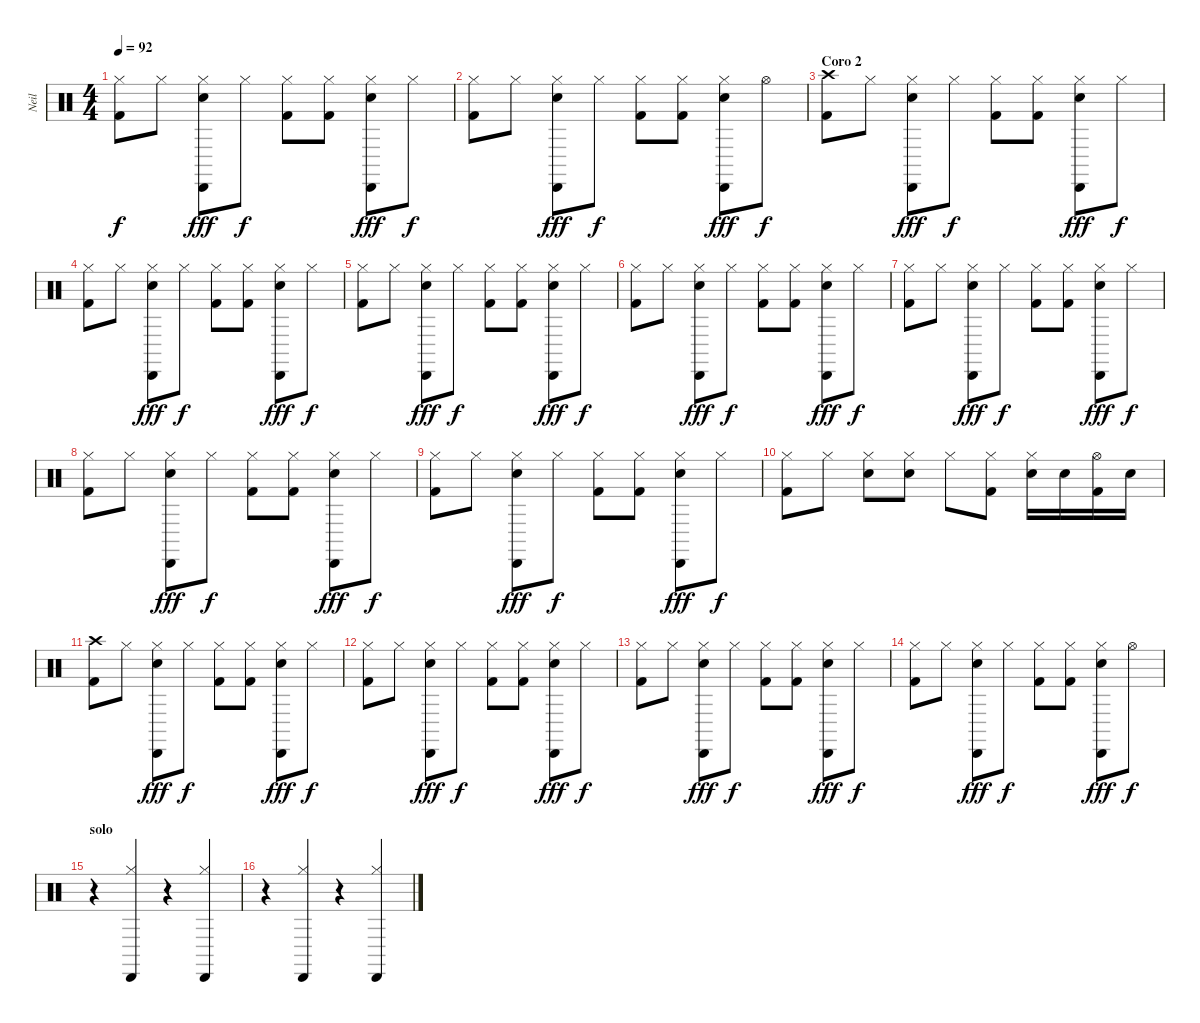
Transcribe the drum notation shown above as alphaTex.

\track ("Neil" "Neil") {instrument percussion}
\staff {score}
\articulation defaults
\ts (4 4)
\tempo 92
\clef neutral
\ks c
("Hi-Hat (closed)" "Kick (hit) 2").8{dy f} "Hi-Hat (closed)".8 ("Hi-Hat (closed)" "Cabasa (hit)" "Electric Snare (hit)").8{dy fff} "Hi-Hat (closed)".8{dy f} ("Hi-Hat (closed)" "Kick (hit) 2").8 ("Hi-Hat (closed)" "Kick (hit) 2").8 ("Hi-Hat (closed)" "Cabasa (hit)" "Electric Snare (hit)").8{dy fff} "Hi-Hat (closed)".8{dy f} |
("Hi-Hat (closed)" "Kick (hit) 2").8 "Hi-Hat (closed)".8 ("Hi-Hat (closed)" "Cabasa (hit)" "Electric Snare (hit)").8{dy fff} "Hi-Hat (closed)".8{dy f} ("Hi-Hat (closed)" "Kick (hit) 2").8 ("Hi-Hat (closed)" "Kick (hit) 2").8 ("Hi-Hat (closed)" "Cabasa (hit)" "Electric Snare (hit)").8{dy fff} "Hi-Hat (open)".8{dy f} |
\section ("" "Coro 2")
("Crash high (hit)" "Kick (hit) 2").8 "Hi-Hat (closed)".8 ("Hi-Hat (closed)" "Cabasa (hit)" "Electric Snare (hit)").8{dy fff} "Hi-Hat (closed)".8{dy f} ("Hi-Hat (closed)" "Kick (hit) 2").8 ("Hi-Hat (closed)" "Kick (hit) 2").8 ("Hi-Hat (closed)" "Cabasa (hit)" "Electric Snare (hit)").8{dy fff} "Hi-Hat (closed)".8{dy f} |
("Hi-Hat (closed)" "Kick (hit) 2").8 "Hi-Hat (closed)".8 ("Hi-Hat (closed)" "Cabasa (hit)" "Electric Snare (hit)").8{dy fff} "Hi-Hat (closed)".8{dy f} ("Hi-Hat (closed)" "Kick (hit) 2").8 ("Hi-Hat (closed)" "Kick (hit) 2").8 ("Hi-Hat (closed)" "Cabasa (hit)" "Electric Snare (hit)").8{dy fff} "Hi-Hat (closed)".8{dy f} |
("Hi-Hat (closed)" "Kick (hit) 2").8 "Hi-Hat (closed)".8 ("Hi-Hat (closed)" "Cabasa (hit)" "Electric Snare (hit)").8{dy fff} "Hi-Hat (closed)".8{dy f} ("Hi-Hat (closed)" "Kick (hit) 2").8 ("Hi-Hat (closed)" "Kick (hit) 2").8 ("Hi-Hat (closed)" "Cabasa (hit)" "Electric Snare (hit)").8{dy fff} "Hi-Hat (closed)".8{dy f} |
("Hi-Hat (closed)" "Kick (hit) 2").8 "Hi-Hat (closed)".8 ("Hi-Hat (closed)" "Cabasa (hit)" "Electric Snare (hit)").8{dy fff} "Hi-Hat (closed)".8{dy f} ("Hi-Hat (closed)" "Kick (hit) 2").8 ("Hi-Hat (closed)" "Kick (hit) 2").8 ("Hi-Hat (closed)" "Cabasa (hit)" "Electric Snare (hit)").8{dy fff} "Hi-Hat (closed)".8{dy f} |
("Hi-Hat (closed)" "Kick (hit) 2").8 "Hi-Hat (closed)".8 ("Hi-Hat (closed)" "Cabasa (hit)" "Electric Snare (hit)").8{dy fff} "Hi-Hat (closed)".8{dy f} ("Hi-Hat (closed)" "Kick (hit) 2").8 ("Hi-Hat (closed)" "Kick (hit) 2").8 ("Hi-Hat (closed)" "Cabasa (hit)" "Electric Snare (hit)").8{dy fff} "Hi-Hat (closed)".8{dy f} |
("Hi-Hat (closed)" "Kick (hit) 2").8 "Hi-Hat (closed)".8 ("Hi-Hat (closed)" "Cabasa (hit)" "Electric Snare (hit)").8{dy fff} "Hi-Hat (closed)".8{dy f} ("Hi-Hat (closed)" "Kick (hit) 2").8 ("Hi-Hat (closed)" "Kick (hit) 2").8 ("Hi-Hat (closed)" "Cabasa (hit)" "Electric Snare (hit)").8{dy fff} "Hi-Hat (closed)".8{dy f} |
("Hi-Hat (closed)" "Kick (hit) 2").8 "Hi-Hat (closed)".8 ("Hi-Hat (closed)" "Cabasa (hit)" "Electric Snare (hit)").8{dy fff} "Hi-Hat (closed)".8{dy f} ("Hi-Hat (closed)" "Kick (hit) 2").8 ("Hi-Hat (closed)" "Kick (hit) 2").8 ("Hi-Hat (closed)" "Cabasa (hit)" "Electric Snare (hit)").8{dy fff} "Hi-Hat (closed)".8{dy f} |
("Hi-Hat (closed)" "Kick (hit) 2").8 "Hi-Hat (closed)".8 ("Hi-Hat (closed)" "Electric Snare (hit)").8 ("Hi-Hat (closed)" "Electric Snare (hit)").8 "Hi-Hat (closed)".8 ("Hi-Hat (closed)" "Kick (hit) 2").8 ("Hi-Hat (closed)" "Electric Snare (hit)").16 "Electric Snare (hit)".16 ("Hi-Hat (open)" "Kick (hit) 2").16 "Electric Snare (hit)".16 |
("Crash high (hit)" "Kick (hit) 2").8 "Hi-Hat (closed)".8 ("Hi-Hat (closed)" "Cabasa (hit)" "Electric Snare (hit)").8{dy fff} "Hi-Hat (closed)".8{dy f} ("Hi-Hat (closed)" "Kick (hit) 2").8 ("Hi-Hat (closed)" "Kick (hit) 2").8 ("Hi-Hat (closed)" "Cabasa (hit)" "Electric Snare (hit)").8{dy fff} "Hi-Hat (closed)".8{dy f} |
("Hi-Hat (closed)" "Kick (hit) 2").8 "Hi-Hat (closed)".8 ("Hi-Hat (closed)" "Cabasa (hit)" "Electric Snare (hit)").8{dy fff} "Hi-Hat (closed)".8{dy f} ("Hi-Hat (closed)" "Kick (hit) 2").8 ("Hi-Hat (closed)" "Kick (hit) 2").8 ("Hi-Hat (closed)" "Cabasa (hit)" "Electric Snare (hit)").8{dy fff} "Hi-Hat (closed)".8{dy f} |
("Hi-Hat (closed)" "Kick (hit) 2").8 "Hi-Hat (closed)".8 ("Hi-Hat (closed)" "Cabasa (hit)" "Electric Snare (hit)").8{dy fff} "Hi-Hat (closed)".8{dy f} ("Hi-Hat (closed)" "Kick (hit) 2").8 ("Hi-Hat (closed)" "Kick (hit) 2").8 ("Hi-Hat (closed)" "Cabasa (hit)" "Electric Snare (hit)").8{dy fff} "Hi-Hat (closed)".8{dy f} |
("Hi-Hat (closed)" "Kick (hit) 2").8 "Hi-Hat (closed)".8 ("Hi-Hat (closed)" "Cabasa (hit)" "Electric Snare (hit)").8{dy fff} "Hi-Hat (closed)".8{dy f} ("Hi-Hat (closed)" "Kick (hit) 2").8 ("Hi-Hat (closed)" "Kick (hit) 2").8 ("Hi-Hat (closed)" "Cabasa (hit)" "Electric Snare (hit)").8{dy fff} "Hi-Hat (open)".8{dy f} |
\section ("" "solo")
r.4 ("Hi-Hat (closed)" "Cabasa (hit)").4 r.4 ("Hi-Hat (closed)" "Cabasa (hit)").4 |
r.4 ("Hi-Hat (closed)" "Cabasa (hit)").4 r.4 ("Hi-Hat (closed)" "Cabasa (hit)").4
